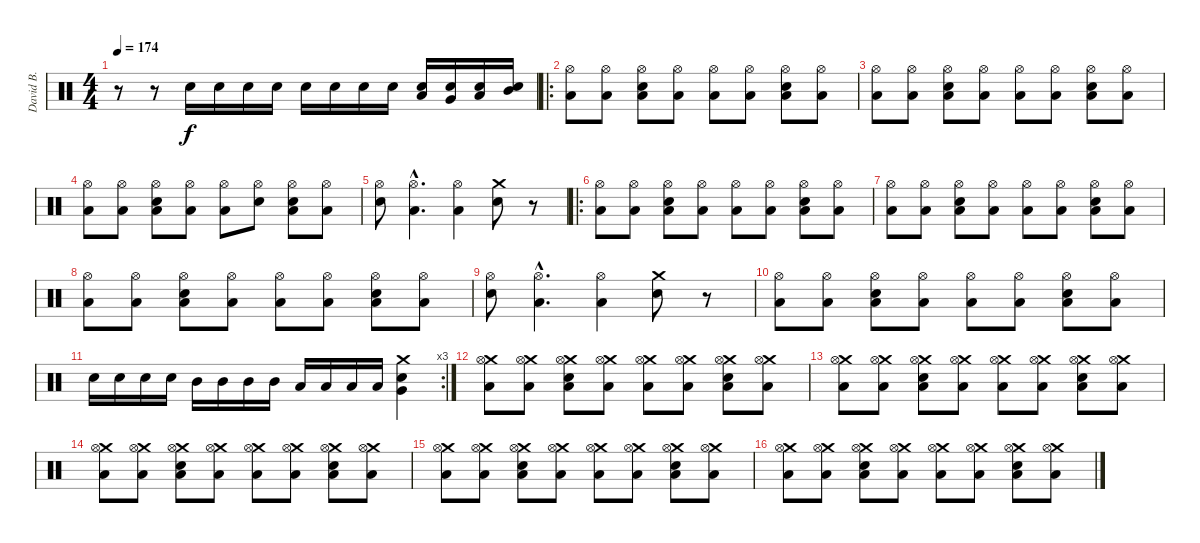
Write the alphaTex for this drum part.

\track ("David B." "David B.") {instrument percussion}
\staff {score}
\articulation defaults
\ts (4 4)
\tempo 174
\clef neutral
\ks c
r.8{dy f} r.8 "Electric Snare (hit)".16 "Electric Snare (hit)".16 "Electric Snare (hit)".16 "Electric Snare (hit)".16 "Electric Snare (hit)".16 "Electric Snare (hit)".16 "Electric Snare (hit)".16 "Electric Snare (hit)".16 ("Electric Snare (hit)" "Low Floor Tom (hit)").16 ("Electric Snare (hit)" "Very Low Tom (hit)").16 ("Electric Snare (hit)" "Low Tom (hit)").16 ("Electric Snare (hit)" "Mid Tom (hit)").16 |
\ro
("Hi-Hat (open)" "Low Floor Tom (hit)").8 ("Hi-Hat (open)" "Low Floor Tom (hit)").8 ("Hi-Hat (open)" "Electric Snare (hit)" "Low Floor Tom (hit)").8 ("Hi-Hat (open)" "Low Floor Tom (hit)").8 ("Hi-Hat (open)" "Low Floor Tom (hit)").8 ("Hi-Hat (open)" "Low Floor Tom (hit)").8 ("Hi-Hat (open)" "Electric Snare (hit)" "Low Floor Tom (hit)").8 ("Hi-Hat (open)" "Low Floor Tom (hit)").8 |
("Hi-Hat (open)" "Low Floor Tom (hit)").8 ("Hi-Hat (open)" "Low Floor Tom (hit)").8 ("Hi-Hat (open)" "Electric Snare (hit)" "Low Floor Tom (hit)").8 ("Hi-Hat (open)" "Low Floor Tom (hit)").8 ("Hi-Hat (open)" "Low Floor Tom (hit)").8 ("Hi-Hat (open)" "Low Floor Tom (hit)").8 ("Hi-Hat (open)" "Electric Snare (hit)" "Low Floor Tom (hit)").8 ("Hi-Hat (open)" "Low Floor Tom (hit)").8 |
("Hi-Hat (open)" "Low Floor Tom (hit)").8 ("Hi-Hat (open)" "Low Floor Tom (hit)").8 ("Hi-Hat (open)" "Electric Snare (hit)" "Low Floor Tom (hit)").8 ("Hi-Hat (open)" "Low Floor Tom (hit)").8 ("Hi-Hat (open)" "Low Floor Tom (hit)").8 ("Hi-Hat (open)" "Snare (hit)").8 ("Hi-Hat (open)" "Electric Snare (hit)" "Low Floor Tom (hit)").8 ("Hi-Hat (open)" "Low Floor Tom (hit)").8 |
("Hi-Hat (open)" "Electric Snare (hit)").8 ("Hi-Hat (open)"{hac} "Low Floor Tom (hit)"{hac}).4{d} ("Hi-Hat (open)" "Low Floor Tom (hit)").4 ("Crash medium (hit)" "Electric Snare (hit)").8 r.8 |
\ro
("Hi-Hat (open)" "Low Floor Tom (hit)").8 ("Hi-Hat (open)" "Low Floor Tom (hit)").8 ("Hi-Hat (open)" "Electric Snare (hit)" "Low Floor Tom (hit)").8 ("Hi-Hat (open)" "Low Floor Tom (hit)").8 ("Hi-Hat (open)" "Low Floor Tom (hit)").8 ("Hi-Hat (open)" "Low Floor Tom (hit)").8 ("Hi-Hat (open)" "Electric Snare (hit)" "Low Floor Tom (hit)").8 ("Hi-Hat (open)" "Low Floor Tom (hit)").8 |
("Hi-Hat (open)" "Low Floor Tom (hit)").8 ("Hi-Hat (open)" "Low Floor Tom (hit)").8 ("Hi-Hat (open)" "Electric Snare (hit)" "Low Floor Tom (hit)").8 ("Hi-Hat (open)" "Low Floor Tom (hit)").8 ("Hi-Hat (open)" "Low Floor Tom (hit)").8 ("Hi-Hat (open)" "Low Floor Tom (hit)").8 ("Hi-Hat (open)" "Electric Snare (hit)" "Low Floor Tom (hit)").8 ("Hi-Hat (open)" "Low Floor Tom (hit)").8 |
("Hi-Hat (open)" "Low Floor Tom (hit)").8 ("Hi-Hat (open)" "Low Floor Tom (hit)").8 ("Hi-Hat (open)" "Electric Snare (hit)" "Low Floor Tom (hit)").8 ("Hi-Hat (open)" "Low Floor Tom (hit)").8 ("Hi-Hat (open)" "Low Floor Tom (hit)").8 ("Hi-Hat (open)" "Low Floor Tom (hit)").8 ("Hi-Hat (open)" "Electric Snare (hit)" "Low Floor Tom (hit)").8 ("Hi-Hat (open)" "Low Floor Tom (hit)").8 |
("Hi-Hat (open)" "Electric Snare (hit)").8 ("Hi-Hat (open)"{hac} "Low Floor Tom (hit)"{hac}).4{d} ("Hi-Hat (open)" "Low Floor Tom (hit)").4 ("Crash medium (hit)" "Electric Snare (hit)").8 r.8 |
("Hi-Hat (open)" "Low Floor Tom (hit)").8 ("Hi-Hat (open)" "Low Floor Tom (hit)").8 ("Hi-Hat (open)" "Electric Snare (hit)" "Low Floor Tom (hit)").8 ("Hi-Hat (open)" "Low Floor Tom (hit)").8 ("Hi-Hat (open)" "Low Floor Tom (hit)").8 ("Hi-Hat (open)" "Low Floor Tom (hit)").8 ("Hi-Hat (open)" "Electric Snare (hit)" "Low Floor Tom (hit)").8 ("Hi-Hat (open)" "Low Floor Tom (hit)").8 |
\rc 3 "Electric Snare (hit)".16 "Electric Snare (hit)".16 "Electric Snare (hit)".16 "Electric Snare (hit)".16 "Mid Tom (hit)".16 "Mid Tom (hit)".16 "Mid Tom (hit)".16 "Mid Tom (hit)".16 "Low Tom (hit)".16 "Low Tom (hit)".16 "Low Tom (hit)".16 "Low Tom (hit)".16
("Very Low Tom (hit)" "Electric Snare (hit)" "Crash medium (hit)").4 |
("Crash medium (hit)" "Hi-Hat (open)" "Low Floor Tom (hit)").8 ("Crash medium (hit)" "Hi-Hat (open)" "Low Floor Tom (hit)").8 ("Crash medium (hit)" "Hi-Hat (open)" "Electric Snare (hit)" "Low Floor Tom (hit)").8 ("Crash medium (hit)" "Hi-Hat (open)" "Low Floor Tom (hit)").8 ("Crash medium (hit)" "Hi-Hat (open)" "Low Floor Tom (hit)").8 ("Crash medium (hit)" "Hi-Hat (open)" "Low Floor Tom (hit)").8 ("Crash medium (hit)" "Hi-Hat (open)" "Electric Snare (hit)" "Low Floor Tom (hit)").8 ("Crash medium (hit)" "Hi-Hat (open)" "Low Floor Tom (hit)").8 |
("Crash medium (hit)" "Hi-Hat (open)" "Low Floor Tom (hit)").8 ("Crash medium (hit)" "Hi-Hat (open)" "Low Floor Tom (hit)").8 ("Crash medium (hit)" "Hi-Hat (open)" "Electric Snare (hit)" "Low Floor Tom (hit)").8 ("Crash medium (hit)" "Hi-Hat (open)" "Low Floor Tom (hit)").8 ("Crash medium (hit)" "Hi-Hat (open)" "Low Floor Tom (hit)").8 ("Crash medium (hit)" "Hi-Hat (open)" "Low Floor Tom (hit)").8 ("Crash medium (hit)" "Hi-Hat (open)" "Electric Snare (hit)" "Low Floor Tom (hit)").8 ("Crash medium (hit)" "Hi-Hat (open)" "Low Floor Tom (hit)").8 |
("Crash medium (hit)" "Hi-Hat (open)" "Low Floor Tom (hit)").8 ("Crash medium (hit)" "Hi-Hat (open)" "Low Floor Tom (hit)").8 ("Crash medium (hit)" "Hi-Hat (open)" "Electric Snare (hit)" "Low Floor Tom (hit)").8 ("Crash medium (hit)" "Hi-Hat (open)" "Low Floor Tom (hit)").8 ("Crash medium (hit)" "Hi-Hat (open)" "Low Floor Tom (hit)").8 ("Crash medium (hit)" "Hi-Hat (open)" "Low Floor Tom (hit)").8 ("Crash medium (hit)" "Hi-Hat (open)" "Electric Snare (hit)" "Low Floor Tom (hit)").8 ("Crash medium (hit)" "Hi-Hat (open)" "Low Floor Tom (hit)").8 |
("Crash medium (hit)" "Hi-Hat (open)" "Low Floor Tom (hit)").8 ("Crash medium (hit)" "Hi-Hat (open)" "Low Floor Tom (hit)").8 ("Crash medium (hit)" "Hi-Hat (open)" "Electric Snare (hit)" "Low Floor Tom (hit)").8 ("Crash medium (hit)" "Hi-Hat (open)" "Low Floor Tom (hit)").8 ("Crash medium (hit)" "Hi-Hat (open)" "Low Floor Tom (hit)").8 ("Crash medium (hit)" "Hi-Hat (open)" "Low Floor Tom (hit)").8 ("Crash medium (hit)" "Hi-Hat (open)" "Electric Snare (hit)" "Low Floor Tom (hit)").8 ("Crash medium (hit)" "Hi-Hat (open)" "Low Floor Tom (hit)").8 |
("Crash medium (hit)" "Hi-Hat (open)" "Low Floor Tom (hit)").8 ("Crash medium (hit)" "Hi-Hat (open)" "Low Floor Tom (hit)").8 ("Crash medium (hit)" "Hi-Hat (open)" "Electric Snare (hit)" "Low Floor Tom (hit)").8 ("Crash medium (hit)" "Hi-Hat (open)" "Low Floor Tom (hit)").8 ("Crash medium (hit)" "Hi-Hat (open)" "Low Floor Tom (hit)").8 ("Crash medium (hit)" "Hi-Hat (open)" "Low Floor Tom (hit)").8 ("Crash medium (hit)" "Hi-Hat (open)" "Electric Snare (hit)" "Low Floor Tom (hit)").8 ("Crash medium (hit)" "Hi-Hat (open)" "Low Floor Tom (hit)").8
